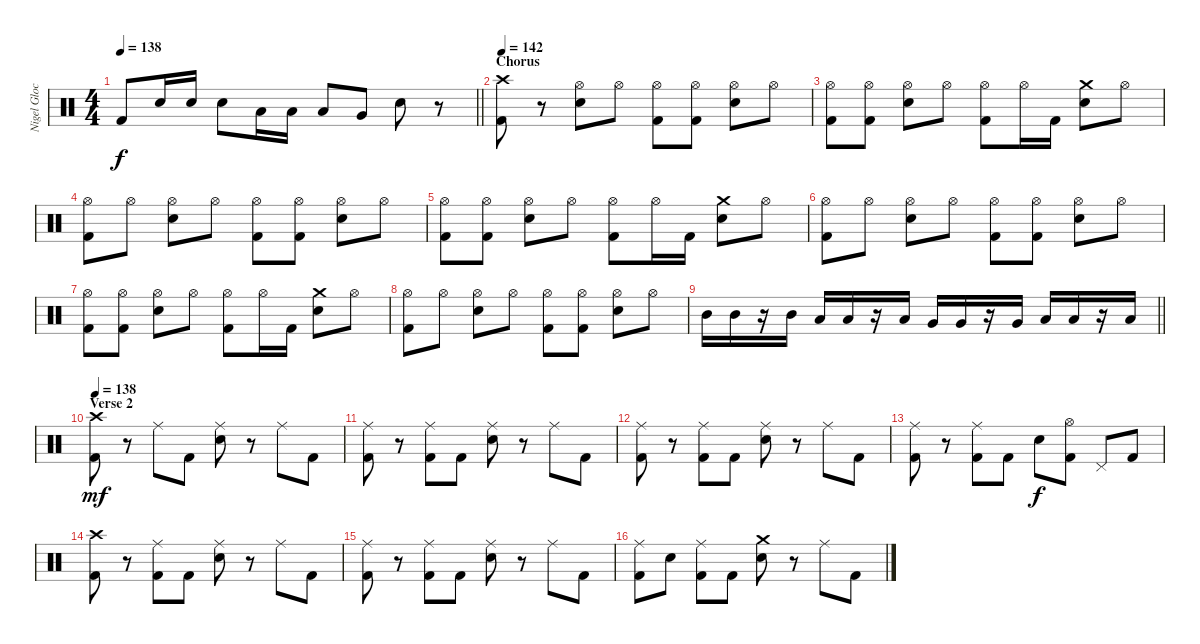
\track ("Nigel Glockler (Drums)" "Nigel Gloc") {instrument percussion}
\staff {score}
\articulation defaults
\ts (4 4)
\tempo 138
\clef neutral
\barLineRight lightlight
\ks c "Kick (hit) 2".8{dy f} "Snare (hit) 2".16 "Snare (hit) 2".16 "Snare (hit) 2".8 "Low Tom (hit)".16 "Low Tom (hit)".16 "Low Tom (hit)".8 "Very Low Tom (hit)".8 "Snare (hit) 2".8
r.8 |
\section ("" "Chorus")
\tempo 142
("Crash high (hit)" "Kick (hit) 2").8 r.8 ("Hi-Hat (open)" "Snare (hit) 2").8 "Hi-Hat (open)".8 ("Hi-Hat (open)" "Kick (hit) 2").8 ("Hi-Hat (open)" "Kick (hit) 2").8 ("Hi-Hat (open)" "Snare (hit) 2").8 "Hi-Hat (open)".8 |
("Hi-Hat (open)" "Kick (hit) 2").8 ("Hi-Hat (open)" "Kick (hit) 2").8 ("Hi-Hat (open)" "Snare (hit) 2").8 "Hi-Hat (open)".8 ("Hi-Hat (open)" "Kick (hit) 2").8 "Hi-Hat (open)".16 "Kick (hit) 2".16 ("Crash medium (hit)" "Snare (hit) 2").8 "Hi-Hat (open)".8 |
("Hi-Hat (open)" "Kick (hit) 2").8 "Hi-Hat (open)".8 ("Hi-Hat (open)" "Snare (hit) 2").8 "Hi-Hat (open)".8 ("Hi-Hat (open)" "Kick (hit) 2").8 ("Hi-Hat (open)" "Kick (hit) 2").8 ("Hi-Hat (open)" "Snare (hit) 2").8 "Hi-Hat (open)".8 |
("Hi-Hat (open)" "Kick (hit) 2").8 ("Hi-Hat (open)" "Kick (hit) 2").8 ("Hi-Hat (open)" "Snare (hit) 2").8 "Hi-Hat (open)".8 ("Hi-Hat (open)" "Kick (hit) 2").8 "Hi-Hat (open)".16 "Kick (hit) 2".16 ("Crash medium (hit)" "Snare (hit) 2").8 "Hi-Hat (open)".8 |
("Hi-Hat (open)" "Kick (hit) 2").8 "Hi-Hat (open)".8 ("Hi-Hat (open)" "Snare (hit) 2").8 "Hi-Hat (open)".8 ("Hi-Hat (open)" "Kick (hit) 2").8 ("Hi-Hat (open)" "Kick (hit) 2").8 ("Hi-Hat (open)" "Snare (hit) 2").8 "Hi-Hat (open)".8 |
("Hi-Hat (open)" "Kick (hit) 2").8 ("Hi-Hat (open)" "Kick (hit) 2").8 ("Hi-Hat (open)" "Snare (hit) 2").8 "Hi-Hat (open)".8 ("Hi-Hat (open)" "Kick (hit) 2").8 "Hi-Hat (open)".16 "Kick (hit) 2".16 ("Crash medium (hit)" "Snare (hit) 2").8 "Hi-Hat (open)".8 |
("Hi-Hat (open)" "Kick (hit) 2").8 "Hi-Hat (open)".8 ("Hi-Hat (open)" "Snare (hit) 2").8 "Hi-Hat (open)".8 ("Hi-Hat (open)" "Kick (hit) 2").8 ("Hi-Hat (open)" "Kick (hit) 2").8 ("Hi-Hat (open)" "Snare (hit) 2").8 "Hi-Hat (open)".8 |
\barLineRight lightlight "Mid Tom (hit)".16 "Mid Tom (hit)".16
r.16 "Mid Tom (hit)".16 "Low Tom (hit)".16 "Low Tom (hit)".16 r.16 "Low Tom (hit)".16 "Very Low Tom (hit)".16 "Very Low Tom (hit)".16 r.16 "Very Low Tom (hit)".16 "Low Floor Tom (hit)".16 "Low Floor Tom (hit)".16 r.16 "Low Floor Tom (hit)".16 |
\section ("" "Verse 2")
\tempo 138
("Crash high (hit)" "Kick (hit) 2").8{dy mf} r.8 "Ride (middle)".8 "Kick (hit) 2".8 ("Ride (middle)" "Snare (hit) 2").8 r.8 "Ride (middle)".8 "Kick (hit) 2".8 |
("Ride (middle)" "Kick (hit) 2").8 r.8 ("Ride (middle)" "Kick (hit) 2").8 "Kick (hit) 2".8 ("Ride (middle)" "Snare (hit) 2").8 r.8 "Ride (middle)".8 "Kick (hit) 2".8 |
("Ride (middle)" "Kick (hit) 2").8 r.8 ("Ride (middle)" "Kick (hit) 2").8 "Kick (hit) 2".8 ("Ride (middle)" "Snare (hit) 2").8 r.8 "Ride (middle)".8 "Kick (hit) 2".8 |
("Ride (middle)" "Kick (hit) 2").8 r.8 ("Ride (middle)" "Kick (hit) 2").8 "Kick (hit) 2".8 "Snare (hit) 2".8{dy f} ("Hi-Hat (open)" "Kick (hit) 2").8 "Pedal Hi-Hat (hit)".8 "Kick (hit) 2".8 |
("Crash high (hit)" "Kick (hit) 2").8 r.8 ("Ride (middle)" "Kick (hit) 2").8 "Kick (hit) 2".8 ("Ride (middle)" "Snare (hit) 2").8 r.8 "Ride (middle)".8 "Kick (hit) 2".8 |
("Ride (middle)" "Kick (hit) 2").8 r.8 ("Ride (middle)" "Kick (hit) 2").8 "Kick (hit) 2".8 ("Ride (middle)" "Snare (hit) 2").8 r.8 "Ride (middle)".8 "Kick (hit) 2".8 |
("Ride (middle)" "Kick (hit) 2").8 "Snare (hit) 2".8 ("Ride (middle)" "Kick (hit) 2").8 "Kick (hit) 2".8 ("Crash medium (hit)" "Snare (hit) 2").8 r.8 "Ride (middle)".8 "Kick (hit) 2".8
